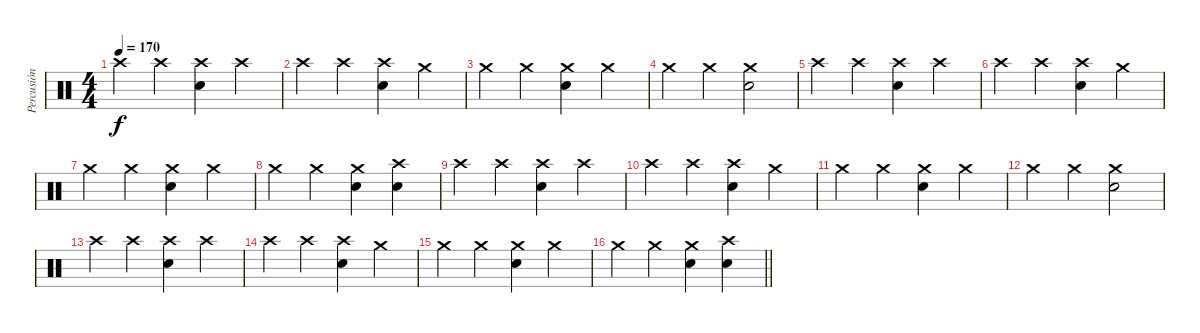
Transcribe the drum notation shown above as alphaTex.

\track ("Percusión" "Percusión") {instrument percussion}
\staff {score}
\articulation defaults
\ts (4 4)
\tempo 170
\clef neutral
\ks c "Crash high (hit)".4{dy f} "Crash high (hit)".4
("Crash high (hit)" "Electric Snare (hit)").4 "Crash high (hit)".4 |
"Crash high (hit)".4 "Crash high (hit)".4 ("Electric Snare (hit)" "Crash high (hit)").4 "Crash medium (hit)".4 |
"Crash medium (hit)".4 "Crash medium (hit)".4 ("Crash medium (hit)" "Electric Snare (hit)").4 "Crash medium (hit)".4 |
"Crash medium (hit)".4 "Crash medium (hit)".4 ("Crash medium (hit)" "Electric Snare (hit)").2 |
"Crash high (hit)".4 "Crash high (hit)".4 ("Crash high (hit)" "Electric Snare (hit)").4 "Crash high (hit)".4 |
"Crash high (hit)".4 "Crash high (hit)".4 ("Electric Snare (hit)" "Crash high (hit)").4 "Crash medium (hit)".4 |
"Crash medium (hit)".4 "Crash medium (hit)".4 ("Crash medium (hit)" "Electric Snare (hit)").4 "Crash medium (hit)".4 |
"Crash medium (hit)".4 "Crash medium (hit)".4 ("Crash medium (hit)" "Electric Snare (hit)").4 ("Crash high (hit)" "Electric Snare (hit)").4 |
"Crash high (hit)".4 "Crash high (hit)".4 ("Crash high (hit)" "Electric Snare (hit)").4 "Crash high (hit)".4 |
"Crash high (hit)".4 "Crash high (hit)".4 ("Electric Snare (hit)" "Crash high (hit)").4 "Crash medium (hit)".4 |
"Crash medium (hit)".4 "Crash medium (hit)".4 ("Crash medium (hit)" "Electric Snare (hit)").4 "Crash medium (hit)".4 |
"Crash medium (hit)".4 "Crash medium (hit)".4 ("Crash medium (hit)" "Electric Snare (hit)").2 |
"Crash high (hit)".4 "Crash high (hit)".4 ("Crash high (hit)" "Electric Snare (hit)").4 "Crash high (hit)".4 |
"Crash high (hit)".4 "Crash high (hit)".4 ("Electric Snare (hit)" "Crash high (hit)").4 "Crash medium (hit)".4 |
"Crash medium (hit)".4 "Crash medium (hit)".4 ("Crash medium (hit)" "Electric Snare (hit)").4 "Crash medium (hit)".4 |
\barLineRight lightlight "Crash medium (hit)".4 "Crash medium (hit)".4
("Crash medium (hit)" "Electric Snare (hit)").4 ("Crash high (hit)" "Electric Snare (hit)").4
